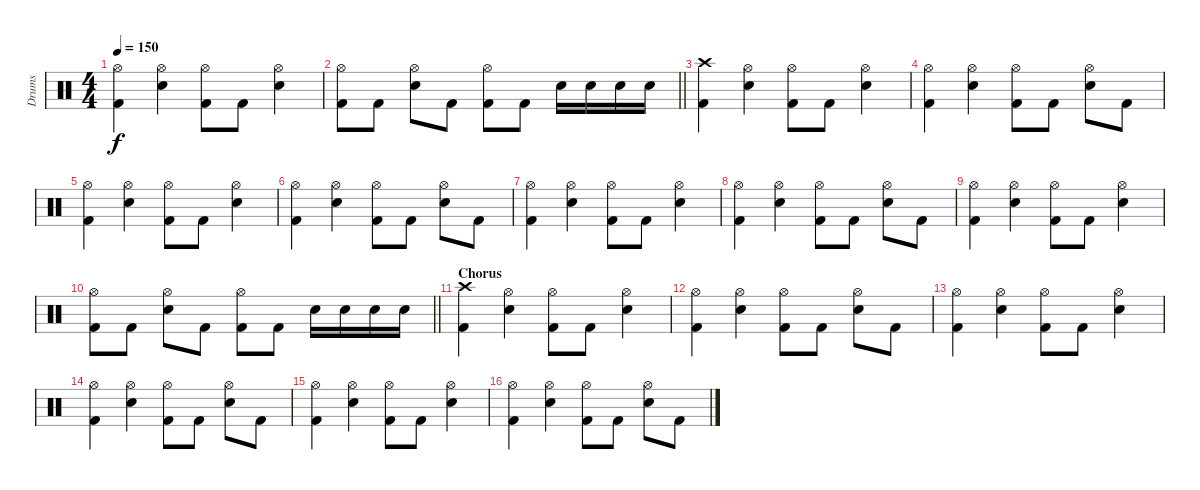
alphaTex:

\track ("Drums" "Drums") {instrument percussion}
\staff {score}
\articulation defaults
\ts (4 4)
\tempo 150
\clef neutral
\ks c
("Hi-Hat (open)" "Kick (hit) 2").4{dy f} ("Hi-Hat (open)" "Electric Snare (hit)").4 ("Hi-Hat (open)" "Kick (hit) 2").8 "Kick (hit) 2".8 ("Hi-Hat (open)" "Electric Snare (hit)").4 |
\barLineRight lightlight
("Hi-Hat (open)" "Kick (hit) 2").8 "Kick (hit) 2".8 ("Hi-Hat (open)" "Electric Snare (hit)").8 "Kick (hit) 2".8 ("Hi-Hat (open)" "Kick (hit) 2").8 "Kick (hit) 2".8 "Electric Snare (hit)".16 "Electric Snare (hit)".16 "Electric Snare (hit)".16 "Electric Snare (hit)".16 |
("Crash high (hit)" "Kick (hit) 2").4 ("Hi-Hat (open)" "Electric Snare (hit)").4 ("Hi-Hat (open)" "Kick (hit) 2").8 "Kick (hit) 2".8 ("Hi-Hat (open)" "Electric Snare (hit)").4 |
("Hi-Hat (open)" "Kick (hit) 2").4 ("Hi-Hat (open)" "Electric Snare (hit)").4 ("Hi-Hat (open)" "Kick (hit) 2").8 "Kick (hit) 2".8 ("Hi-Hat (open)" "Electric Snare (hit)").8 "Kick (hit) 2".8 |
("Hi-Hat (open)" "Kick (hit) 2").4 ("Hi-Hat (open)" "Electric Snare (hit)").4 ("Hi-Hat (open)" "Kick (hit) 2").8 "Kick (hit) 2".8 ("Hi-Hat (open)" "Electric Snare (hit)").4 |
("Hi-Hat (open)" "Kick (hit) 2").4 ("Hi-Hat (open)" "Electric Snare (hit)").4 ("Hi-Hat (open)" "Kick (hit) 2").8 "Kick (hit) 2".8 ("Hi-Hat (open)" "Electric Snare (hit)").8 "Kick (hit) 2".8 |
("Hi-Hat (open)" "Kick (hit) 2").4 ("Hi-Hat (open)" "Electric Snare (hit)").4 ("Hi-Hat (open)" "Kick (hit) 2").8 "Kick (hit) 2".8 ("Hi-Hat (open)" "Electric Snare (hit)").4 |
("Hi-Hat (open)" "Kick (hit) 2").4 ("Hi-Hat (open)" "Electric Snare (hit)").4 ("Hi-Hat (open)" "Kick (hit) 2").8 "Kick (hit) 2".8 ("Hi-Hat (open)" "Electric Snare (hit)").8 "Kick (hit) 2".8 |
("Hi-Hat (open)" "Kick (hit) 2").4 ("Hi-Hat (open)" "Electric Snare (hit)").4 ("Hi-Hat (open)" "Kick (hit) 2").8 "Kick (hit) 2".8 ("Hi-Hat (open)" "Electric Snare (hit)").4 |
\barLineRight lightlight
("Hi-Hat (open)" "Kick (hit) 2").8 "Kick (hit) 2".8 ("Hi-Hat (open)" "Electric Snare (hit)").8 "Kick (hit) 2".8 ("Hi-Hat (open)" "Kick (hit) 2").8 "Kick (hit) 2".8 "Electric Snare (hit)".16 "Electric Snare (hit)".16 "Electric Snare (hit)".16 "Electric Snare (hit)".16 |
\section ("" "Chorus")
("Crash high (hit)" "Kick (hit) 2").4 ("Hi-Hat (open)" "Electric Snare (hit)").4 ("Hi-Hat (open)" "Kick (hit) 2").8 "Kick (hit) 2".8 ("Hi-Hat (open)" "Electric Snare (hit)").4 |
("Hi-Hat (open)" "Kick (hit) 2").4 ("Hi-Hat (open)" "Electric Snare (hit)").4 ("Hi-Hat (open)" "Kick (hit) 2").8 "Kick (hit) 2".8 ("Hi-Hat (open)" "Electric Snare (hit)").8 "Kick (hit) 2".8 |
("Hi-Hat (open)" "Kick (hit) 2").4 ("Hi-Hat (open)" "Electric Snare (hit)").4 ("Hi-Hat (open)" "Kick (hit) 2").8 "Kick (hit) 2".8 ("Hi-Hat (open)" "Electric Snare (hit)").4 |
("Hi-Hat (open)" "Kick (hit) 2").4 ("Hi-Hat (open)" "Electric Snare (hit)").4 ("Hi-Hat (open)" "Kick (hit) 2").8 "Kick (hit) 2".8 ("Hi-Hat (open)" "Electric Snare (hit)").8 "Kick (hit) 2".8 |
("Hi-Hat (open)" "Kick (hit) 2").4 ("Hi-Hat (open)" "Electric Snare (hit)").4 ("Hi-Hat (open)" "Kick (hit) 2").8 "Kick (hit) 2".8 ("Hi-Hat (open)" "Electric Snare (hit)").4 |
("Hi-Hat (open)" "Kick (hit) 2").4 ("Hi-Hat (open)" "Electric Snare (hit)").4 ("Hi-Hat (open)" "Kick (hit) 2").8 "Kick (hit) 2".8 ("Hi-Hat (open)" "Electric Snare (hit)").8 "Kick (hit) 2".8
